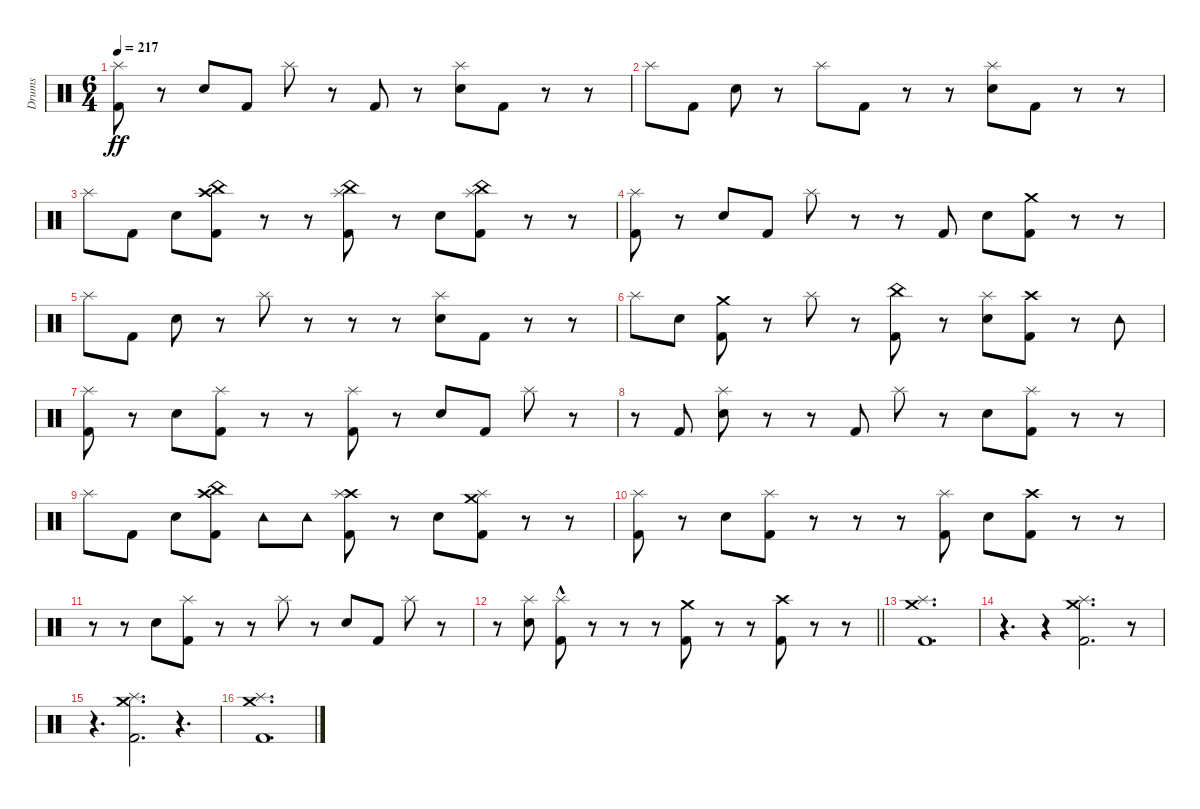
\track ("Drums" "Drums") {instrument percussion}
\staff {score}
\articulation defaults
\ts (6 4)
\section ("" "")
\tempo 217
\clef neutral
\ks c
("Splash (hit)" "Kick (hit) 2").8{dy ff} r.8 "Electric Snare (hit)".8 "Kick (hit) 2".8 "Splash (hit)".8 r.8 "Kick (hit) 2".8 r.8 ("Splash (hit)" "Electric Snare (hit)").8 "Kick (hit) 2".8 r.8 r.8 |
"Splash (hit)".8 "Kick (hit) 2".8 "Electric Snare (hit)".8 r.8 "Splash (hit)".8 "Kick (hit) 2".8 r.8 r.8 ("Splash (hit)" "Electric Snare (hit)").8 "Kick (hit) 2".8 r.8 r.8 |
"Splash (hit)".8 "Kick (hit) 2".8 "Electric Snare (hit)".8 ("China (hit)" "Crash high (hit)" "Kick (hit) 2").8 r.8 r.8 ("China (hit)" "Splash (hit)" "Kick (hit) 2").8 r.8 "Electric Snare (hit)".8 ("China (hit)" "Splash (hit)" "Kick (hit) 2").8 r.8 r.8 |
("Splash (hit)" "Kick (hit) 2").8 r.8 "Electric Snare (hit)".8 "Kick (hit) 2".8 "Splash (hit)".8 r.8 r.8 "Kick (hit) 2".8 "Electric Snare (hit)".8 ("Crash medium (hit)" "Kick (hit) 2").8 r.8 r.8 |
"Splash (hit)".8 "Kick (hit) 2".8 "Electric Snare (hit)".8 r.8 "Splash (hit)".8 r.8 r.8 r.8 ("Splash (hit)" "Electric Snare (hit)").8 "Kick (hit) 2".8 r.8 r.8 |
"Splash (hit)".8 "Electric Snare (hit)".8 ("Crash medium (hit)" "Kick (hit) 2").8 r.8 "Splash (hit)".8 r.8 ("China (hit)" "Kick (hit) 2").8 r.8 ("Splash (hit)" "Electric Snare (hit)").8 ("Crash high (hit)" "Kick (hit) 2").8 r.8 "Tambourine (hit)".8 |
("Splash (hit)" "Kick (hit) 2").8 r.8 "Electric Snare (hit)".8 ("Splash (hit)" "Kick (hit) 2").8 r.8 r.8 ("Splash (hit)" "Kick (hit) 2").8 r.8 "Electric Snare (hit)".8 "Kick (hit) 2".8 "Splash (hit)".8 r.8 |
r.8 "Kick (hit) 2".8 ("Splash (hit)" "Electric Snare (hit)").8 r.8 r.8 "Kick (hit) 2".8 "Splash (hit)".8 r.8 "Electric Snare (hit)".8 ("Splash (hit)" "Kick (hit) 2").8 r.8 r.8 |
"Splash (hit)".8 "Kick (hit) 2".8 "Electric Snare (hit)".8 ("China (hit)" "Crash high (hit)" "Kick (hit) 2").8 "Tambourine (hit)".8 "Tambourine (hit)".8 ("Crash high (hit)" "Splash (hit)" "Kick (hit) 2").8 r.8 "Electric Snare (hit)".8 ("Crash medium (hit)" "Splash (hit)" "Kick (hit) 2").8 r.8 r.8 |
("Splash (hit)" "Kick (hit) 2").8 r.8 "Electric Snare (hit)".8 ("Splash (hit)" "Kick (hit) 2").8 r.8 r.8 r.8 ("Splash (hit)" "Kick (hit) 2").8 "Electric Snare (hit)".8 ("Crash high (hit)" "Kick (hit) 2").8 r.8 r.8 |
r.8 r.8 "Electric Snare (hit)".8 ("Splash (hit)" "Kick (hit) 2").8 r.8 r.8 "Splash (hit)".8 r.8 "Electric Snare (hit)".8 "Kick (hit) 2".8 "Splash (hit)".8 r.8 |
\barLineRight lightlight
r.8 ("Splash (hit)" "Electric Snare (hit)").8 ("Splash (hit)"{hac} "Kick (hit) 2").8 r.8 r.8 r.8 ("Crash medium (hit)" "Kick (hit) 2").8 r.8 r.8 ("Crash high (hit)" "Kick (hit) 2").8 r.8 r.8 |
\section ("" "")
("Crash medium (hit)" "Splash (hit)" "Kick (hit) 2").1{d} |
r.4{d} r.4 ("Crash medium (hit)" "Splash (hit)" "Kick (hit) 2").2{d} r.8 |
r.4{d} ("Crash medium (hit)" "Splash (hit)" "Kick (hit) 2").2{d} r.4{d} |
("Crash medium (hit)" "Splash (hit)" "Kick (hit) 2").1{d}
